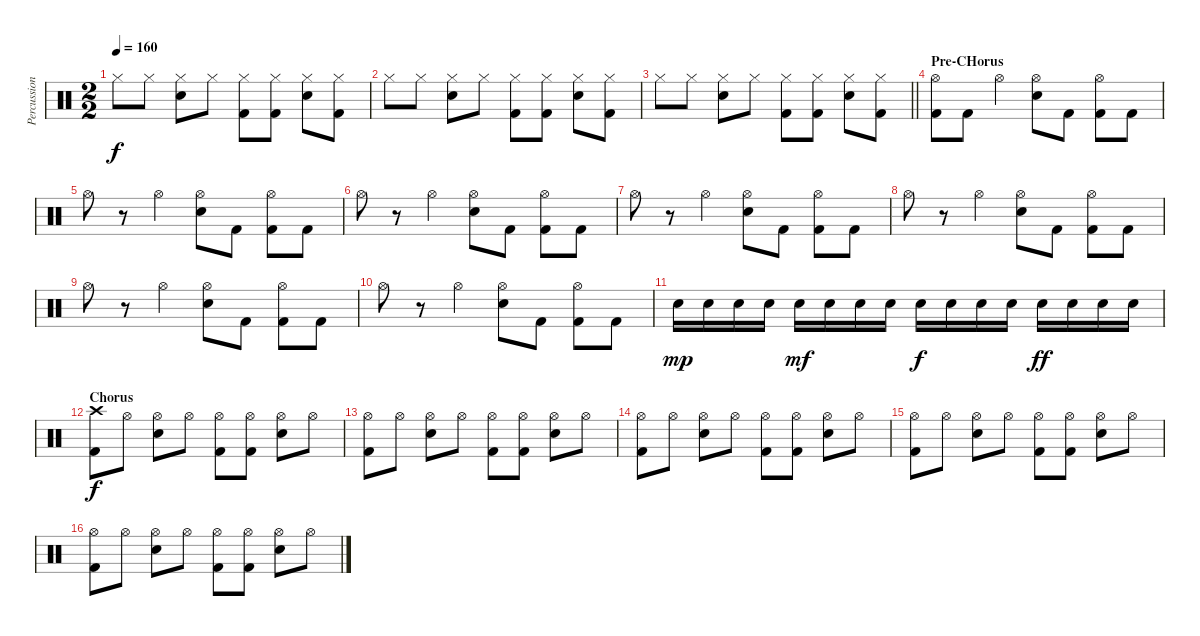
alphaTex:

\track ("Percussion" "Percussion") {instrument percussion}
\staff {score}
\articulation defaults
\ts (2 2)
\tempo 160
\clef neutral
\ks c "Hi-Hat (closed)".8{dy f} "Hi-Hat (closed)".8
("Hi-Hat (closed)" "Snare (hit) 2").8 "Hi-Hat (closed)".8 ("Hi-Hat (closed)" "Kick (hit) 2").8 ("Hi-Hat (closed)" "Kick (hit) 2").8 ("Hi-Hat (closed)" "Snare (hit) 2").8 ("Hi-Hat (closed)" "Kick (hit) 2").8 |
"Hi-Hat (closed)".8 "Hi-Hat (closed)".8 ("Hi-Hat (closed)" "Snare (hit) 2").8 "Hi-Hat (closed)".8 ("Hi-Hat (closed)" "Kick (hit) 2").8 ("Hi-Hat (closed)" "Kick (hit) 2").8 ("Hi-Hat (closed)" "Snare (hit) 2").8 ("Hi-Hat (closed)" "Kick (hit) 2").8 |
\barLineRight lightlight "Hi-Hat (closed)".8 "Hi-Hat (closed)".8
("Hi-Hat (closed)" "Snare (hit) 2").8 "Hi-Hat (closed)".8 ("Hi-Hat (closed)" "Kick (hit) 2").8 ("Hi-Hat (closed)" "Kick (hit) 2").8 ("Hi-Hat (closed)" "Snare (hit) 2").8 ("Hi-Hat (closed)" "Kick (hit) 2").8 |
\section ("" "Pre-CHorus")
("Hi-Hat (open)" "Kick (hit) 2").8 "Kick (hit) 2".8 "Hi-Hat (open)".4 ("Hi-Hat (open)" "Snare (hit) 2").8 "Kick (hit) 2".8 ("Hi-Hat (open)" "Kick (hit) 2").8 "Kick (hit) 2".8 |
"Hi-Hat (open)".8 r.8 "Hi-Hat (open)".4 ("Hi-Hat (open)" "Snare (hit) 2").8 "Kick (hit) 2".8 ("Hi-Hat (open)" "Kick (hit) 2").8 "Kick (hit) 2".8 |
"Hi-Hat (open)".8 r.8 "Hi-Hat (open)".4 ("Hi-Hat (open)" "Snare (hit) 2").8 "Kick (hit) 2".8 ("Hi-Hat (open)" "Kick (hit) 2").8 "Kick (hit) 2".8 |
"Hi-Hat (open)".8 r.8 "Hi-Hat (open)".4 ("Hi-Hat (open)" "Snare (hit) 2").8 "Kick (hit) 2".8 ("Hi-Hat (open)" "Kick (hit) 2").8 "Kick (hit) 2".8 |
"Hi-Hat (open)".8 r.8 "Hi-Hat (open)".4 ("Hi-Hat (open)" "Snare (hit) 2").8 "Kick (hit) 2".8 ("Hi-Hat (open)" "Kick (hit) 2").8 "Kick (hit) 2".8 |
"Hi-Hat (open)".8 r.8 "Hi-Hat (open)".4 ("Hi-Hat (open)" "Snare (hit) 2").8 "Kick (hit) 2".8 ("Hi-Hat (open)" "Kick (hit) 2").8 "Kick (hit) 2".8 |
"Hi-Hat (open)".8 r.8 "Hi-Hat (open)".4 ("Hi-Hat (open)" "Snare (hit) 2").8 "Kick (hit) 2".8 ("Hi-Hat (open)" "Kick (hit) 2").8 "Kick (hit) 2".8 |
"Snare (hit) 2".16{dy mp} "Snare (hit) 2".16 "Snare (hit) 2".16 "Snare (hit) 2".16 "Snare (hit) 2".16{dy mf} "Snare (hit) 2".16 "Snare (hit) 2".16 "Snare (hit) 2".16 "Snare (hit) 2".16{dy f} "Snare (hit) 2".16 "Snare (hit) 2".16 "Snare (hit) 2".16 "Snare (hit) 2".16{dy ff} "Snare (hit) 2".16 "Snare (hit) 2".16 "Snare (hit) 2".16 |
\section ("" "Chorus")
("Crash high (hit)" "Kick (hit) 2").8{dy f} "Hi-Hat (open)".8 ("Hi-Hat (open)" "Snare (hit) 2").8 "Hi-Hat (open)".8 ("Hi-Hat (open)" "Kick (hit) 2").8 ("Hi-Hat (open)" "Kick (hit) 2").8 ("Hi-Hat (open)" "Snare (hit) 2").8 "Hi-Hat (open)".8 |
("Hi-Hat (open)" "Kick (hit) 2").8 "Hi-Hat (open)".8 ("Hi-Hat (open)" "Snare (hit) 2").8 "Hi-Hat (open)".8 ("Hi-Hat (open)" "Kick (hit) 2").8 ("Hi-Hat (open)" "Kick (hit) 2").8 ("Hi-Hat (open)" "Snare (hit) 2").8 "Hi-Hat (open)".8 |
("Hi-Hat (open)" "Kick (hit) 2").8 "Hi-Hat (open)".8 ("Hi-Hat (open)" "Snare (hit) 2").8 "Hi-Hat (open)".8 ("Hi-Hat (open)" "Kick (hit) 2").8 ("Hi-Hat (open)" "Kick (hit) 2").8 ("Hi-Hat (open)" "Snare (hit) 2").8 "Hi-Hat (open)".8 |
("Hi-Hat (open)" "Kick (hit) 2").8 "Hi-Hat (open)".8 ("Hi-Hat (open)" "Snare (hit) 2").8 "Hi-Hat (open)".8 ("Hi-Hat (open)" "Kick (hit) 2").8 ("Hi-Hat (open)" "Kick (hit) 2").8 ("Hi-Hat (open)" "Snare (hit) 2").8 "Hi-Hat (open)".8 |
("Hi-Hat (open)" "Kick (hit) 2").8 "Hi-Hat (open)".8 ("Hi-Hat (open)" "Snare (hit) 2").8 "Hi-Hat (open)".8 ("Hi-Hat (open)" "Kick (hit) 2").8 ("Hi-Hat (open)" "Kick (hit) 2").8 ("Hi-Hat (open)" "Snare (hit) 2").8 "Hi-Hat (open)".8
